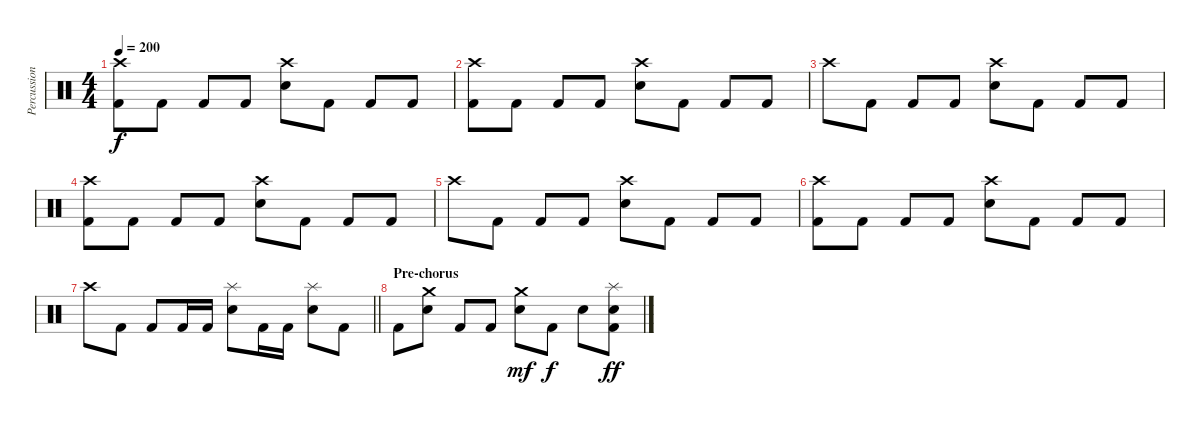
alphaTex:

\track ("Percussion" "Percussion") {instrument percussion}
\staff {score}
\articulation defaults
\ts (4 4)
\tempo 200
\clef neutral
\ks c
("Crash high (hit)" "Kick (hit) 2").8{dy f} "Kick (hit) 2".8 "Kick (hit) 2".8 "Kick (hit) 2".8 ("Crash high (hit)" "Snare (hit) 2").8 "Kick (hit) 2".8 "Kick (hit) 2".8 "Kick (hit) 2".8 |
("Crash high (hit)" "Kick (hit) 2").8 "Kick (hit) 2".8 "Kick (hit) 2".8 "Kick (hit) 2".8 ("Crash high (hit)" "Snare (hit) 2").8 "Kick (hit) 2".8 "Kick (hit) 2".8 "Kick (hit) 2".8 |
"Crash high (hit)".8 "Kick (hit) 2".8 "Kick (hit) 2".8 "Kick (hit) 2".8 ("Crash high (hit)" "Snare (hit) 2").8 "Kick (hit) 2".8 "Kick (hit) 2".8 "Kick (hit) 2".8 |
("Crash high (hit)" "Kick (hit) 2").8 "Kick (hit) 2".8 "Kick (hit) 2".8 "Kick (hit) 2".8 ("Crash high (hit)" "Snare (hit) 2").8 "Kick (hit) 2".8 "Kick (hit) 2".8 "Kick (hit) 2".8 |
"Crash high (hit)".8 "Kick (hit) 2".8 "Kick (hit) 2".8 "Kick (hit) 2".8 ("Crash high (hit)" "Snare (hit) 2").8 "Kick (hit) 2".8 "Kick (hit) 2".8 "Kick (hit) 2".8 |
("Crash high (hit)" "Kick (hit) 2").8 "Kick (hit) 2".8 "Kick (hit) 2".8 "Kick (hit) 2".8 ("Crash high (hit)" "Snare (hit) 2").8 "Kick (hit) 2".8 "Kick (hit) 2".8 "Kick (hit) 2".8 |
\barLineRight lightlight "Crash high (hit)".8 "Kick (hit) 2".8 "Kick (hit) 2".8 "Kick (hit) 2".16 "Kick (hit) 2".16
("Splash (hit)" "Snare (hit) 2").8 "Kick (hit) 2".16 "Kick (hit) 2".16 ("Splash (hit)" "Snare (hit) 2").8 "Kick (hit) 2".8 |
\section ("" "Pre-chorus")
"Kick (hit) 2".8 ("Crash medium (hit)" "Snare (hit) 2").8 "Kick (hit) 2".8 "Kick (hit) 2".8 ("Crash medium (hit)" "Snare (hit) 2").8{dy mf} "Kick (hit) 2".8{dy f} "Snare (hit) 2".8 ("Splash (hit)" "Snare (hit) 2" "Kick (hit) 2").8{dy ff}
